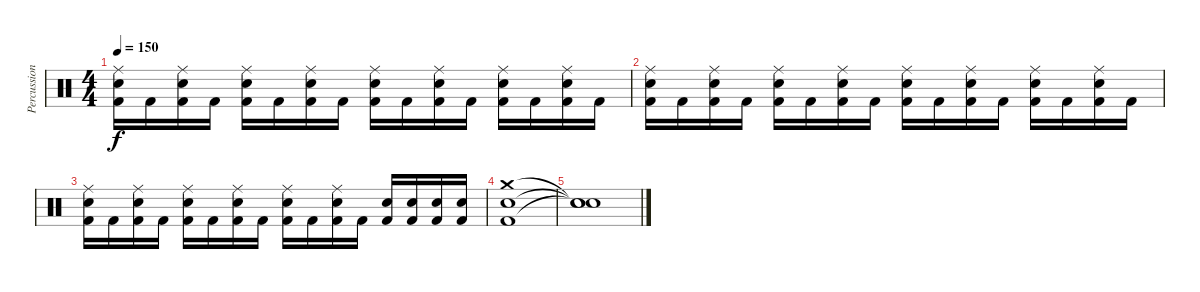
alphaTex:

\track ("Percussions" "Percussion") {instrument percussion}
\staff {score}
\articulation defaults
\ts (4 4)
\tempo 150
\clef neutral
\ks c
("Ride (middle)" "Snare (hit) 2" "Kick (hit) 2").16{dy f} "Kick (hit) 2".16 ("Ride (middle)" "Snare (hit) 2" "Kick (hit) 2").16 "Kick (hit) 2".16 ("Ride (middle)" "Snare (hit) 2" "Kick (hit) 2").16 "Kick (hit) 2".16 ("Ride (middle)" "Snare (hit) 2" "Kick (hit) 2").16 "Kick (hit) 2".16 ("Ride (middle)" "Snare (hit) 2" "Kick (hit) 2").16 "Kick (hit) 2".16 ("Ride (middle)" "Snare (hit) 2" "Kick (hit) 2").16 "Kick (hit) 2".16 ("Ride (middle)" "Snare (hit) 2" "Kick (hit) 2").16 "Kick (hit) 2".16 ("Ride (middle)" "Snare (hit) 2" "Kick (hit) 2").16 "Kick (hit) 2".16 |
("Ride (middle)" "Snare (hit) 2" "Kick (hit) 2").16 "Kick (hit) 2".16 ("Ride (middle)" "Snare (hit) 2" "Kick (hit) 2").16 "Kick (hit) 2".16 ("Ride (middle)" "Snare (hit) 2" "Kick (hit) 2").16 "Kick (hit) 2".16 ("Ride (middle)" "Snare (hit) 2" "Kick (hit) 2").16 "Kick (hit) 2".16 ("Ride (middle)" "Snare (hit) 2" "Kick (hit) 2").16 "Kick (hit) 2".16 ("Ride (middle)" "Snare (hit) 2" "Kick (hit) 2").16 "Kick (hit) 2".16 ("Ride (middle)" "Snare (hit) 2" "Kick (hit) 2").16 "Kick (hit) 2".16 ("Ride (middle)" "Snare (hit) 2" "Kick (hit) 2").16 "Kick (hit) 2".16 |
("Ride (middle)" "Snare (hit) 2" "Kick (hit) 2").16 "Kick (hit) 2".16 ("Ride (middle)" "Snare (hit) 2" "Kick (hit) 2").16 "Kick (hit) 2".16 ("Ride (middle)" "Snare (hit) 2" "Kick (hit) 2").16 "Kick (hit) 2".16 ("Ride (middle)" "Snare (hit) 2" "Kick (hit) 2").16 "Kick (hit) 2".16 ("Ride (middle)" "Snare (hit) 2" "Kick (hit) 2").16 "Kick (hit) 2".16 ("Ride (middle)" "Snare (hit) 2" "Kick (hit) 2").16 "Kick (hit) 2".16 ("Snare (hit) 2" "Kick (hit) 2").16 ("Snare (hit) 2" "Kick (hit) 2").16 ("Snare (hit) 2" "Kick (hit) 2").16 ("Snare (hit) 2" "Kick (hit) 2").16 |
("Crash medium (hit)" "Snare (hit) 2" "Kick (hit) 2").1 |
("Snare (hit)"{t} "Snare (hit)"{t} "Snare (hit)"{t}).1
